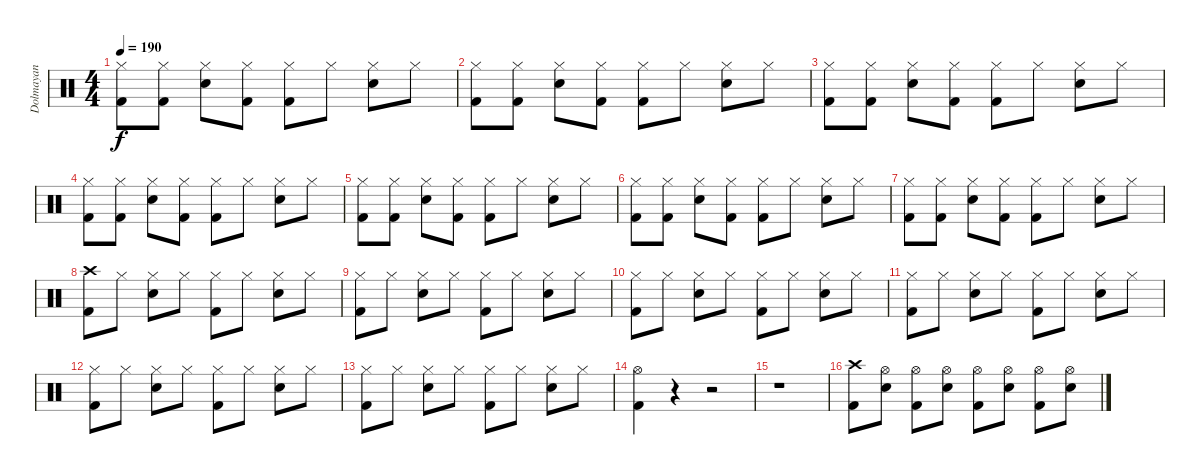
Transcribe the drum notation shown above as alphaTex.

\track ("Dolmayan" "Dolmayan") {instrument percussion}
\staff {score}
\articulation defaults
\ts (4 4)
\tempo 190
\clef neutral
\ks c
("Hi-Hat (closed)" "Kick (hit) 2").8{dy f} ("Hi-Hat (closed)" "Kick (hit) 2").8 ("Hi-Hat (closed)" "Electric Snare (hit)").8 ("Hi-Hat (closed)" "Kick (hit) 2").8 ("Hi-Hat (closed)" "Kick (hit) 2").8 "Hi-Hat (closed)".8 ("Hi-Hat (closed)" "Electric Snare (hit)").8 "Hi-Hat (closed)".8 |
("Hi-Hat (closed)" "Kick (hit) 2").8 ("Hi-Hat (closed)" "Kick (hit) 2").8 ("Hi-Hat (closed)" "Electric Snare (hit)").8 ("Hi-Hat (closed)" "Kick (hit) 2").8 ("Hi-Hat (closed)" "Kick (hit) 2").8 "Hi-Hat (closed)".8 ("Hi-Hat (closed)" "Electric Snare (hit)").8 "Hi-Hat (closed)".8 |
("Hi-Hat (closed)" "Kick (hit) 2").8 ("Hi-Hat (closed)" "Kick (hit) 2").8 ("Hi-Hat (closed)" "Electric Snare (hit)").8 ("Hi-Hat (closed)" "Kick (hit) 2").8 ("Hi-Hat (closed)" "Kick (hit) 2").8 "Hi-Hat (closed)".8 ("Hi-Hat (closed)" "Electric Snare (hit)").8 "Hi-Hat (closed)".8 |
("Hi-Hat (closed)" "Kick (hit) 2").8 ("Hi-Hat (closed)" "Kick (hit) 2").8 ("Hi-Hat (closed)" "Electric Snare (hit)").8 ("Hi-Hat (closed)" "Kick (hit) 2").8 ("Hi-Hat (closed)" "Kick (hit) 2").8 "Hi-Hat (closed)".8 ("Hi-Hat (closed)" "Electric Snare (hit)").8 "Hi-Hat (closed)".8 |
("Hi-Hat (closed)" "Kick (hit) 2").8 ("Hi-Hat (closed)" "Kick (hit) 2").8 ("Hi-Hat (closed)" "Electric Snare (hit)").8 ("Hi-Hat (closed)" "Kick (hit) 2").8 ("Hi-Hat (closed)" "Kick (hit) 2").8 "Hi-Hat (closed)".8 ("Hi-Hat (closed)" "Electric Snare (hit)").8 "Hi-Hat (closed)".8 |
("Hi-Hat (closed)" "Kick (hit) 2").8 ("Hi-Hat (closed)" "Kick (hit) 2").8 ("Hi-Hat (closed)" "Electric Snare (hit)").8 ("Hi-Hat (closed)" "Kick (hit) 2").8 ("Hi-Hat (closed)" "Kick (hit) 2").8 "Hi-Hat (closed)".8 ("Hi-Hat (closed)" "Electric Snare (hit)").8 "Hi-Hat (closed)".8 |
("Hi-Hat (closed)" "Kick (hit) 2").8 ("Hi-Hat (closed)" "Kick (hit) 2").8 ("Hi-Hat (closed)" "Electric Snare (hit)").8 ("Hi-Hat (closed)" "Kick (hit) 2").8 ("Hi-Hat (closed)" "Kick (hit) 2").8 "Hi-Hat (closed)".8 ("Hi-Hat (closed)" "Electric Snare (hit)").8 "Hi-Hat (closed)".8 |
("Crash high (hit)" "Kick (hit) 2").8 "Hi-Hat (closed)".8 ("Hi-Hat (closed)" "Electric Snare (hit)").8 "Hi-Hat (closed)".8 ("Hi-Hat (closed)" "Kick (hit) 2").8 "Hi-Hat (closed)".8 ("Hi-Hat (closed)" "Electric Snare (hit)").8 "Hi-Hat (closed)".8 |
("Hi-Hat (closed)" "Kick (hit) 2").8 "Hi-Hat (closed)".8 ("Hi-Hat (closed)" "Electric Snare (hit)").8 "Hi-Hat (closed)".8 ("Hi-Hat (closed)" "Kick (hit) 2").8 "Hi-Hat (closed)".8 ("Hi-Hat (closed)" "Electric Snare (hit)").8 "Hi-Hat (closed)".8 |
("Hi-Hat (closed)" "Kick (hit) 2").8 "Hi-Hat (closed)".8 ("Hi-Hat (closed)" "Electric Snare (hit)").8 "Hi-Hat (closed)".8 ("Hi-Hat (closed)" "Kick (hit) 2").8 "Hi-Hat (closed)".8 ("Hi-Hat (closed)" "Electric Snare (hit)").8 "Hi-Hat (closed)".8 |
("Hi-Hat (closed)" "Kick (hit) 2").8 "Hi-Hat (closed)".8 ("Hi-Hat (closed)" "Electric Snare (hit)").8 "Hi-Hat (closed)".8 ("Hi-Hat (closed)" "Kick (hit) 2").8 "Hi-Hat (closed)".8 ("Hi-Hat (closed)" "Electric Snare (hit)").8 "Hi-Hat (closed)".8 |
("Hi-Hat (closed)" "Kick (hit) 2").8 "Hi-Hat (closed)".8 ("Hi-Hat (closed)" "Electric Snare (hit)").8 "Hi-Hat (closed)".8 ("Hi-Hat (closed)" "Kick (hit) 2").8 "Hi-Hat (closed)".8 ("Hi-Hat (closed)" "Electric Snare (hit)").8 "Hi-Hat (closed)".8 |
("Hi-Hat (closed)" "Kick (hit) 2").8 "Hi-Hat (closed)".8 ("Hi-Hat (closed)" "Electric Snare (hit)").8 "Hi-Hat (closed)".8 ("Hi-Hat (closed)" "Kick (hit) 2").8 "Hi-Hat (closed)".8 ("Hi-Hat (closed)" "Electric Snare (hit)").8 "Hi-Hat (closed)".8 |
("Hi-Hat (open)" "Kick (hit) 2").4 r.4 r.2 |
r.1 |
("Crash high (hit)" "Kick (hit) 2").8 ("Hi-Hat (open)" "Electric Snare (hit)").8 ("Hi-Hat (open)" "Kick (hit) 2").8 ("Hi-Hat (open)" "Electric Snare (hit)").8 ("Hi-Hat (open)" "Kick (hit) 2").8 ("Hi-Hat (open)" "Electric Snare (hit)").8 ("Hi-Hat (open)" "Kick (hit) 2").8 ("Hi-Hat (open)" "Electric Snare (hit)").8
